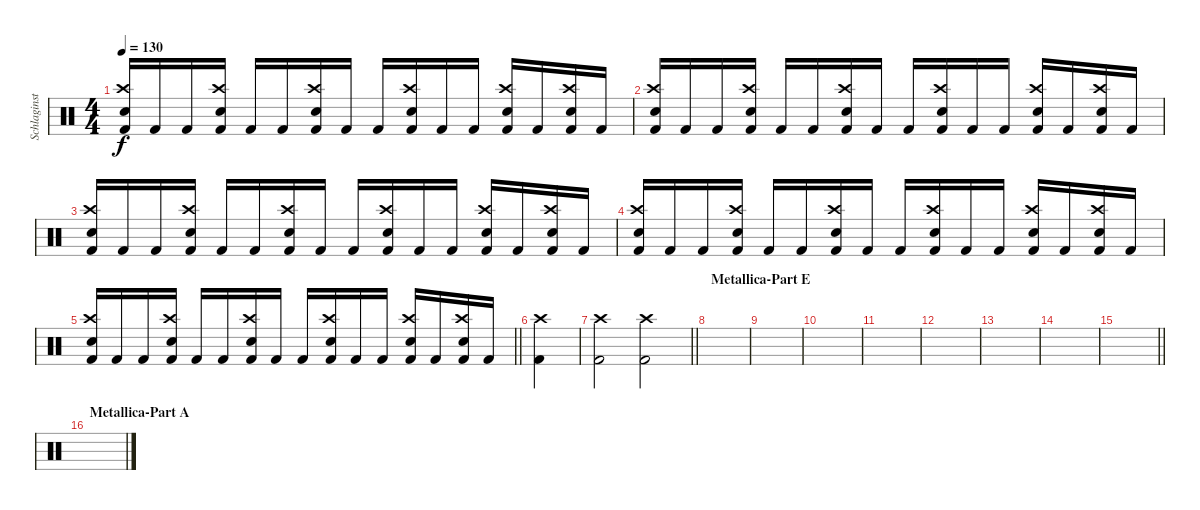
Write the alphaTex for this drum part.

\track ("Schlaginstrumente - Auswahl" "Schlaginst") {instrument percussion}
\staff {score}
\articulation defaults
\ts (4 4)
\tempo 130
\clef neutral
\ks c
("Snare (hit) 2" "Crash high (hit)" "Kick (hit) 2").16{dy f} "Kick (hit) 2".16 "Kick (hit) 2".16 ("Snare (hit) 2" "Crash high (hit)" "Kick (hit) 2").16 "Kick (hit) 2".16 "Kick (hit) 2".16 ("Snare (hit) 2" "Crash high (hit)" "Kick (hit) 2").16 "Kick (hit) 2".16 "Kick (hit) 2".16 ("Snare (hit) 2" "Crash high (hit)" "Kick (hit) 2").16 "Kick (hit) 2".16 "Kick (hit) 2".16 ("Snare (hit) 2" "Crash high (hit)" "Kick (hit) 2").16 "Kick (hit) 2".16 ("Snare (hit) 2" "Crash high (hit)" "Kick (hit) 2").16 "Kick (hit) 2".16 |
("Snare (hit) 2" "Crash high (hit)" "Kick (hit) 2").16 "Kick (hit) 2".16 "Kick (hit) 2".16 ("Snare (hit) 2" "Crash high (hit)" "Kick (hit) 2").16 "Kick (hit) 2".16 "Kick (hit) 2".16 ("Snare (hit) 2" "Crash high (hit)" "Kick (hit) 2").16 "Kick (hit) 2".16 "Kick (hit) 2".16 ("Snare (hit) 2" "Crash high (hit)" "Kick (hit) 2").16 "Kick (hit) 2".16 "Kick (hit) 2".16 ("Snare (hit) 2" "Crash high (hit)" "Kick (hit) 2").16 "Kick (hit) 2".16 ("Snare (hit) 2" "Crash high (hit)" "Kick (hit) 2").16 "Kick (hit) 2".16 |
("Snare (hit) 2" "Crash high (hit)" "Kick (hit) 2").16 "Kick (hit) 2".16 "Kick (hit) 2".16 ("Snare (hit) 2" "Crash high (hit)" "Kick (hit) 2").16 "Kick (hit) 2".16 "Kick (hit) 2".16 ("Snare (hit) 2" "Crash high (hit)" "Kick (hit) 2").16 "Kick (hit) 2".16 "Kick (hit) 2".16 ("Snare (hit) 2" "Crash high (hit)" "Kick (hit) 2").16 "Kick (hit) 2".16 "Kick (hit) 2".16 ("Snare (hit) 2" "Crash high (hit)" "Kick (hit) 2").16 "Kick (hit) 2".16 ("Snare (hit) 2" "Crash high (hit)" "Kick (hit) 2").16 "Kick (hit) 2".16 |
("Snare (hit) 2" "Crash high (hit)" "Kick (hit) 2").16 "Kick (hit) 2".16 "Kick (hit) 2".16 ("Snare (hit) 2" "Crash high (hit)" "Kick (hit) 2").16 "Kick (hit) 2".16 "Kick (hit) 2".16 ("Snare (hit) 2" "Crash high (hit)" "Kick (hit) 2").16 "Kick (hit) 2".16 "Kick (hit) 2".16 ("Snare (hit) 2" "Crash high (hit)" "Kick (hit) 2").16 "Kick (hit) 2".16 "Kick (hit) 2".16 ("Snare (hit) 2" "Crash high (hit)" "Kick (hit) 2").16 "Kick (hit) 2".16 ("Snare (hit) 2" "Crash high (hit)" "Kick (hit) 2").16 "Kick (hit) 2".16 |
\barLineRight lightlight
("Snare (hit) 2" "Crash high (hit)" "Kick (hit) 2").16 "Kick (hit) 2".16 "Kick (hit) 2".16 ("Snare (hit) 2" "Crash high (hit)" "Kick (hit) 2").16 "Kick (hit) 2".16 "Kick (hit) 2".16 ("Snare (hit) 2" "Crash high (hit)" "Kick (hit) 2").16 "Kick (hit) 2".16 "Kick (hit) 2".16 ("Snare (hit) 2" "Crash high (hit)" "Kick (hit) 2").16 "Kick (hit) 2".16 "Kick (hit) 2".16 ("Snare (hit) 2" "Crash high (hit)" "Kick (hit) 2").16 "Kick (hit) 2".16 ("Snare (hit) 2" "Crash high (hit)" "Kick (hit) 2").16 "Kick (hit) 2".16 |
\section ("" "")
("Crash high (hit)" "Kick (hit) 2").4 |
\barLineRight lightlight
("Crash high (hit)" "Kick (hit) 2").2 ("Crash high (hit)" "Kick (hit) 2").2 |
\section ("" "Metallica-Part E")
|
|
|
|
|
|
|
\barLineRight lightlight
|
\section ("" "Metallica-Part A")
